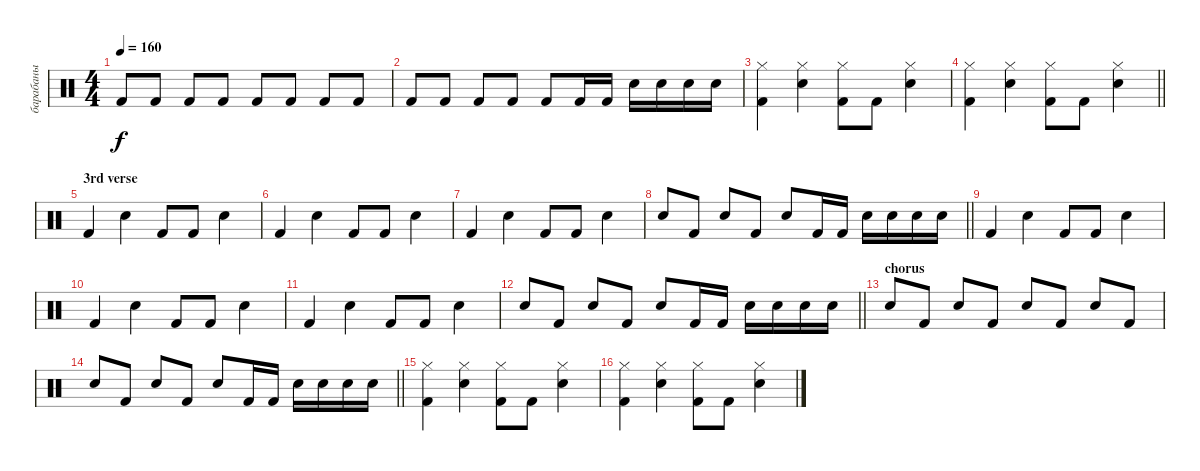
\track ("барабаны" "барабаны") {instrument percussion}
\staff {score}
\articulation defaults
\ts (4 4)
\tempo 160
\clef neutral
\ks c "Kick (hit) 2".8{dy f} "Kick (hit) 2".8 "Kick (hit) 2".8 "Kick (hit) 2".8 "Kick (hit) 2".8 "Kick (hit) 2".8 "Kick (hit) 2".8 "Kick (hit) 2".8
|
"Kick (hit) 2".8 "Kick (hit) 2".8 "Kick (hit) 2".8 "Kick (hit) 2".8 "Kick (hit) 2".8 "Kick (hit) 2".16 "Kick (hit) 2".16 "Snare (hit) 2".16 "Snare (hit) 2".16 "Snare (hit) 2".16 "Snare (hit) 2".16 |
("Hi-Hat (closed)" "Kick (hit) 2").4 ("Hi-Hat (closed)" "Snare (hit) 2").4 ("Hi-Hat (closed)" "Kick (hit) 2").8 "Kick (hit) 2".8 ("Hi-Hat (closed)" "Snare (hit) 2").4 |
\barLineRight lightlight
("Hi-Hat (closed)" "Kick (hit) 2").4 ("Hi-Hat (closed)" "Snare (hit) 2").4 ("Hi-Hat (closed)" "Kick (hit) 2").8 "Kick (hit) 2".8 ("Hi-Hat (closed)" "Snare (hit) 2").4 |
\section ("" "3rd verse")
"Kick (hit) 2".4 "Snare (hit) 2".4 "Kick (hit) 2".8 "Kick (hit) 2".8 "Snare (hit) 2".4 |
"Kick (hit) 2".4 "Snare (hit) 2".4 "Kick (hit) 2".8 "Kick (hit) 2".8 "Snare (hit) 2".4 |
"Kick (hit) 2".4 "Snare (hit) 2".4 "Kick (hit) 2".8 "Kick (hit) 2".8 "Snare (hit) 2".4 |
\barLineRight lightlight "Snare (hit) 2".8 "Kick (hit) 2".8 "Snare (hit) 2".8 "Kick (hit) 2".8 "Snare (hit) 2".8 "Kick (hit) 2".16 "Kick (hit) 2".16 "Snare (hit) 2".16 "Snare (hit) 2".16 "Snare (hit) 2".16 "Snare (hit) 2".16
|
"Kick (hit) 2".4 "Snare (hit) 2".4 "Kick (hit) 2".8 "Kick (hit) 2".8 "Snare (hit) 2".4 |
"Kick (hit) 2".4 "Snare (hit) 2".4 "Kick (hit) 2".8 "Kick (hit) 2".8 "Snare (hit) 2".4 |
"Kick (hit) 2".4 "Snare (hit) 2".4 "Kick (hit) 2".8 "Kick (hit) 2".8 "Snare (hit) 2".4 |
\barLineRight lightlight "Snare (hit) 2".8 "Kick (hit) 2".8 "Snare (hit) 2".8 "Kick (hit) 2".8 "Snare (hit) 2".8 "Kick (hit) 2".16 "Kick (hit) 2".16 "Snare (hit) 2".16 "Snare (hit) 2".16 "Snare (hit) 2".16 "Snare (hit) 2".16
|
\section ("" "chorus")
"Snare (hit) 2".8 "Kick (hit) 2".8 "Snare (hit) 2".8 "Kick (hit) 2".8 "Snare (hit) 2".8 "Kick (hit) 2".8 "Snare (hit) 2".8 "Kick (hit) 2".8 |
\barLineRight lightlight "Snare (hit) 2".8 "Kick (hit) 2".8 "Snare (hit) 2".8 "Kick (hit) 2".8 "Snare (hit) 2".8 "Kick (hit) 2".16 "Kick (hit) 2".16 "Snare (hit) 2".16 "Snare (hit) 2".16 "Snare (hit) 2".16 "Snare (hit) 2".16
|
("Hi-Hat (closed)" "Kick (hit) 2").4 ("Hi-Hat (closed)" "Snare (hit) 2").4 ("Hi-Hat (closed)" "Kick (hit) 2").8 "Kick (hit) 2".8 ("Hi-Hat (closed)" "Snare (hit) 2").4 |
("Hi-Hat (closed)" "Kick (hit) 2").4 ("Hi-Hat (closed)" "Snare (hit) 2").4 ("Hi-Hat (closed)" "Kick (hit) 2").8 "Kick (hit) 2".8 ("Hi-Hat (closed)" "Snare (hit) 2").4
